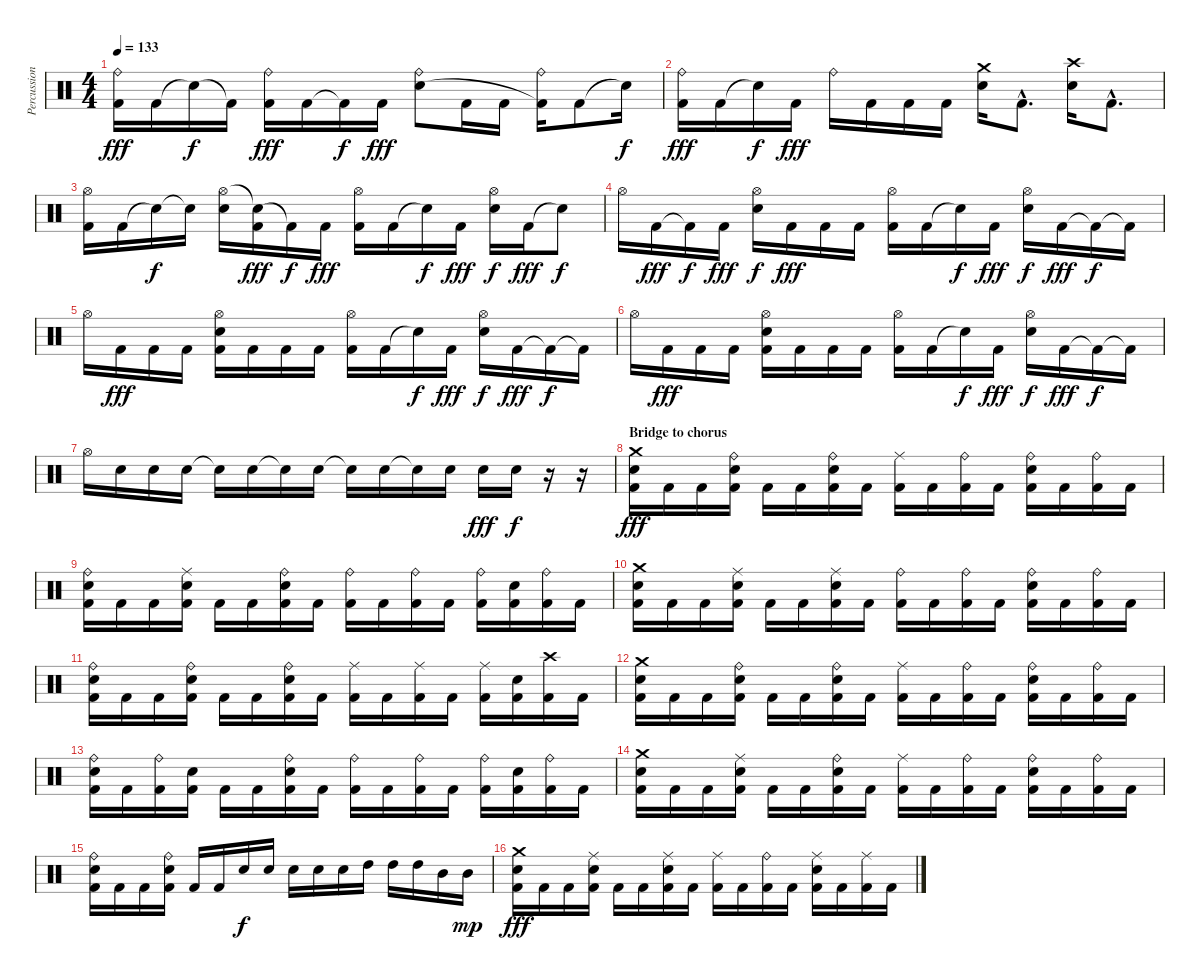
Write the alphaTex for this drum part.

\track ("Percussion" "Percussion") {instrument percussion}
\staff {score}
\articulation defaults
\ts (4 4)
\tempo 133
\clef neutral
\ks c
("Ride (bell)" "Kick (hit) 2").16{dy fff} "Kick (hit) 2".16 "Snare (hit)"{t}.16{dy f} "Kick (hit) 2"{t}.16 ("Ride (bell)" "Kick (hit) 2").16{dy fff} "Kick (hit) 2".16 "Kick (hit) 2"{t}.16{dy f} "Kick (hit) 2".16{dy fff} ("Ride (bell)" "Electric Snare (hit)").8 "Kick (hit) 2".16 "Kick (hit) 2".16 ("Ride (bell)" "Kick (hit) 2"{t}).16 "Kick (hit) 2".8 "Snare (hit)"{t}.16{dy f} |
("Ride (bell)" "Kick (hit) 2").16{dy fff} "Kick (hit) 2".16 "Snare (hit)"{t}.16{dy f} "Kick (hit) 2".16{dy fff} "Ride (bell)".16 "Kick (hit) 2".16 "Kick (hit) 2".16 "Kick (hit) 2".16 ("Crash medium (hit)" "Electric Snare (hit)").16 "Kick (hit) 2"{hac}.8{d} ("Crash high (hit)" "Electric Snare (hit)").16 "Kick (hit) 2"{hac}.8{d} |
("Hi-Hat (open)" "Kick (hit) 2").16 "Kick (hit) 2".16 "Snare (hit)"{t}.16{dy f} "Snare (hit)"{t}.16 ("Hi-Hat (open)" "Electric Snare (hit)").16 ("Snare (hit)"{t} "Kick (hit) 2").16{dy fff} "Kick (hit) 2"{t}.16{dy f} "Kick (hit) 2".16{dy fff} ("Hi-Hat (open)" "Kick (hit) 2").16 "Kick (hit) 2".16 "Snare (hit)"{t}.16{dy f} "Kick (hit) 2".16{dy fff} ("Hi-Hat (open)" "Electric Snare (hit)").16{dy f} "Kick (hit) 2".16{dy fff} "Snare (hit)"{t}.8{dy f} |
"Hi-Hat (open)".16 "Kick (hit) 2".16{dy fff} "Kick (hit) 2"{t}.16{dy f} "Kick (hit) 2".16{dy fff} ("Hi-Hat (open)" "Electric Snare (hit)").16{dy f} "Kick (hit) 2".16{dy fff} "Kick (hit) 2".16 "Kick (hit) 2".16 ("Hi-Hat (open)" "Kick (hit) 2").16 "Kick (hit) 2".16 "Snare (hit)"{t}.16{dy f} "Kick (hit) 2".16{dy fff} ("Hi-Hat (open)" "Electric Snare (hit)").16{dy f} "Kick (hit) 2".16{dy fff} "Kick (hit) 2"{t}.16{dy f} "Kick (hit) 2"{t}.16 |
"Hi-Hat (open)".16 "Kick (hit) 2".16{dy fff} "Kick (hit) 2".16 "Kick (hit) 2".16 ("Hi-Hat (open)" "Electric Snare (hit)" "Kick (hit) 2").16 "Kick (hit) 2".16 "Kick (hit) 2".16 "Kick (hit) 2".16 ("Hi-Hat (open)" "Kick (hit) 2").16 "Kick (hit) 2".16 "Snare (hit)"{t}.16{dy f} "Kick (hit) 2".16{dy fff} ("Hi-Hat (open)" "Electric Snare (hit)").16{dy f} "Kick (hit) 2".16{dy fff} "Kick (hit) 2"{t}.16{dy f} "Kick (hit) 2"{t}.16 |
"Hi-Hat (open)".16 "Kick (hit) 2".16{dy fff} "Kick (hit) 2".16 "Kick (hit) 2".16 ("Hi-Hat (open)" "Electric Snare (hit)" "Kick (hit) 2").16 "Kick (hit) 2".16 "Kick (hit) 2".16 "Kick (hit) 2".16 ("Hi-Hat (open)" "Kick (hit) 2").16 "Kick (hit) 2".16 "Snare (hit)"{t}.16{dy f} "Kick (hit) 2".16{dy fff} ("Hi-Hat (open)" "Electric Snare (hit)").16{dy f} "Kick (hit) 2".16{dy fff} "Kick (hit) 2"{t}.16{dy f} "Kick (hit) 2"{t}.16 |
"Hi-Hat (open)".16 "Electric Snare (hit)".16 "Electric Snare (hit)".16 "Electric Snare (hit)".16 "Electric Snare (hit)"{t}.16 "Electric Snare (hit)".16 "Snare (hit)"{t}.16 "Electric Snare (hit)".16 "Snare (hit)"{t}.16 "Electric Snare (hit)".16 "Snare (hit)"{t}.16 "Electric Snare (hit)".16 "Electric Snare (hit)".16{dy fff} "Electric Snare (hit)".16{dy f} r.16 r.16 |
\section ("" "Bridge to chorus")
("Crash medium (hit)" "Electric Snare (hit)" "Kick (hit) 2").16{dy fff} "Kick (hit) 2".16 "Kick (hit) 2".16 ("Ride (bell)" "Electric Snare (hit)" "Kick (hit) 2").16 "Kick (hit) 2".16 "Kick (hit) 2".16 ("Ride (bell)" "Electric Snare (hit)" "Kick (hit) 2").16 "Kick (hit) 2".16 ("Ride (middle)" "Kick (hit) 2").16 "Kick (hit) 2".16 ("Ride (bell)" "Kick (hit) 2").16 "Kick (hit) 2".16 ("Ride (bell)" "Electric Snare (hit)" "Kick (hit) 2").16 "Kick (hit) 2".16 ("Ride (bell)" "Kick (hit) 2").16 "Kick (hit) 2".16 |
("Ride (bell)" "Electric Snare (hit)" "Kick (hit) 2").16 "Kick (hit) 2".16 "Kick (hit) 2".16 ("Ride (middle)" "Electric Snare (hit)" "Kick (hit) 2").16 "Kick (hit) 2".16 "Kick (hit) 2".16 ("Ride (bell)" "Electric Snare (hit)" "Kick (hit) 2").16 "Kick (hit) 2".16 ("Ride (bell)" "Kick (hit) 2").16 "Kick (hit) 2".16 ("Ride (bell)" "Kick (hit) 2").16 "Kick (hit) 2".16 ("Ride (bell)" "Kick (hit) 2").16 ("Electric Snare (hit)" "Kick (hit) 2").16 ("Ride (bell)" "Kick (hit) 2").16 "Kick (hit) 2".16 |
("Crash medium (hit)" "Electric Snare (hit)" "Kick (hit) 2").16 "Kick (hit) 2".16 "Kick (hit) 2".16 ("Ride (middle)" "Electric Snare (hit)" "Kick (hit) 2").16 "Kick (hit) 2".16 "Kick (hit) 2".16 ("Ride (middle)" "Electric Snare (hit)" "Kick (hit) 2").16 "Kick (hit) 2".16 ("Ride (bell)" "Kick (hit) 2").16 "Kick (hit) 2".16 ("Ride (bell)" "Kick (hit) 2").16 "Kick (hit) 2".16 ("Ride (bell)" "Electric Snare (hit)" "Kick (hit) 2").16 "Kick (hit) 2".16 ("Ride (bell)" "Kick (hit) 2").16 "Kick (hit) 2".16 |
("Ride (bell)" "Electric Snare (hit)" "Kick (hit) 2").16 "Kick (hit) 2".16 "Kick (hit) 2".16 ("Ride (bell)" "Electric Snare (hit)" "Kick (hit) 2").16 "Kick (hit) 2".16 "Kick (hit) 2".16 ("Ride (bell)" "Electric Snare (hit)" "Kick (hit) 2").16 "Kick (hit) 2".16 ("Ride (middle)" "Kick (hit) 2").16 "Kick (hit) 2".16 ("Ride (middle)" "Kick (hit) 2").16 "Kick (hit) 2".16 ("Ride (middle)" "Kick (hit) 2").16 ("Electric Snare (hit)" "Kick (hit) 2").16 ("Crash high (hit)" "Kick (hit) 2").16 "Kick (hit) 2".16 |
("Crash medium (hit)" "Electric Snare (hit)" "Kick (hit) 2").16 "Kick (hit) 2".16 "Kick (hit) 2".16 ("Ride (bell)" "Electric Snare (hit)" "Kick (hit) 2").16 "Kick (hit) 2".16 "Kick (hit) 2".16 ("Ride (bell)" "Electric Snare (hit)" "Kick (hit) 2").16 "Kick (hit) 2".16 ("Ride (middle)" "Kick (hit) 2").16 "Kick (hit) 2".16 ("Ride (bell)" "Kick (hit) 2").16 "Kick (hit) 2".16 ("Ride (bell)" "Electric Snare (hit)" "Kick (hit) 2").16 "Kick (hit) 2".16 ("Ride (bell)" "Kick (hit) 2").16 "Kick (hit) 2".16 |
("Ride (bell)" "Electric Snare (hit)" "Kick (hit) 2").16 "Kick (hit) 2".16 ("Ride (bell)" "Kick (hit) 2").16 ("Electric Snare (hit)" "Kick (hit) 2").16 "Kick (hit) 2".16 "Kick (hit) 2".16 ("Ride (bell)" "Electric Snare (hit)" "Kick (hit) 2").16 "Kick (hit) 2".16 ("Ride (bell)" "Kick (hit) 2").16 "Kick (hit) 2".16 ("Ride (bell)" "Kick (hit) 2").16 "Kick (hit) 2".16 ("Ride (bell)" "Kick (hit) 2").16 ("Electric Snare (hit)" "Kick (hit) 2").16 ("Ride (bell)" "Kick (hit) 2").16 "Kick (hit) 2".16 |
("Crash medium (hit)" "Electric Snare (hit)" "Kick (hit) 2").16 "Kick (hit) 2".16 "Kick (hit) 2".16 ("Ride (middle)" "Electric Snare (hit)" "Kick (hit) 2").16 "Kick (hit) 2".16 "Kick (hit) 2".16 ("Ride (bell)" "Electric Snare (hit)" "Kick (hit) 2").16 "Kick (hit) 2".16 ("Ride (middle)" "Kick (hit) 2").16 "Kick (hit) 2".16 ("Ride (bell)" "Kick (hit) 2").16 "Kick (hit) 2".16 ("Ride (bell)" "Electric Snare (hit)" "Kick (hit) 2").16 "Kick (hit) 2".16 ("Ride (bell)" "Kick (hit) 2").16 "Kick (hit) 2".16 |
("Ride (bell)" "Electric Snare (hit)" "Kick (hit) 2").16 "Kick (hit) 2".16 "Kick (hit) 2".16 ("Ride (bell)" "Electric Snare (hit)" "Kick (hit) 2").16 "Kick (hit) 2".16 "Kick (hit) 2".16 "Electric Snare (hit)".16{dy f} "Electric Snare (hit)".16 "Electric Snare (hit)".16 "Electric Snare (hit)".16 "Electric Snare (hit)".16 "High Tom (hit)".16 "High Tom (hit)".16 "High Tom (hit)".16 "Mid Tom (hit)".16 "Mid Tom (hit)".16{dy mp} |
("Crash medium (hit)" "Electric Snare (hit)" "Kick (hit) 2").16{dy fff} "Kick (hit) 2".16 "Kick (hit) 2".16 ("Ride (middle)" "Electric Snare (hit)" "Kick (hit) 2").16 "Kick (hit) 2".16 "Kick (hit) 2".16 ("Ride (middle)" "Electric Snare (hit)" "Kick (hit) 2").16 "Kick (hit) 2".16 ("Ride (middle)" "Kick (hit) 2").16 "Kick (hit) 2".16 ("Ride (bell)" "Kick (hit) 2").16 "Kick (hit) 2".16 ("Ride (middle)" "Electric Snare (hit)" "Kick (hit) 2").16 "Kick (hit) 2".16 ("Ride (middle)" "Kick (hit) 2").16 "Kick (hit) 2".16
